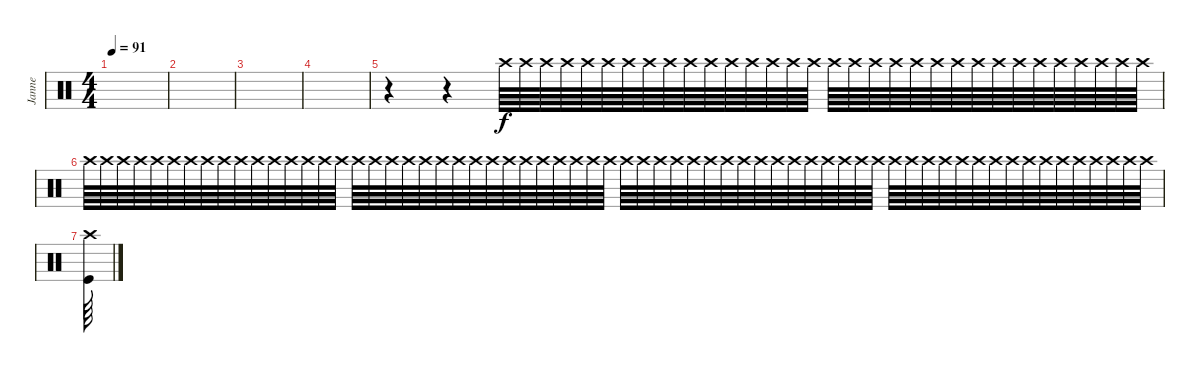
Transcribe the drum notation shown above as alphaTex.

\track ("Janne" "Janne") {instrument percussion}
\staff {score}
\articulation defaults
\ts (4 4)
\tempo 91
\clef neutral
\ks c
|
|
|
|
r.4 r.4 "Crash high (hit)".64{volume 16} "Crash high (hit)".64 "Crash high (hit)".64 "Crash high (hit)".64 "Crash high (hit)".64 "Crash high (hit)".64 "Crash high (hit)".64 "Crash high (hit)".64 "Crash high (hit)".64 "Crash high (hit)".64 "Crash high (hit)".64 "Crash high (hit)".64 "Crash high (hit)".64 "Crash high (hit)".64 "Crash high (hit)".64 "Crash high (hit)".64 "Crash high (hit)".64 "Crash high (hit)".64 "Crash high (hit)".64 "Crash high (hit)".64 "Crash high (hit)".64 "Crash high (hit)".64 "Crash high (hit)".64 "Crash high (hit)".64 "Crash high (hit)".64 "Crash high (hit)".64 "Crash high (hit)".64 "Crash high (hit)".64 "Crash high (hit)".64 "Crash high (hit)".64 "Crash high (hit)".64 "Crash high (hit)".64 |
"Crash high (hit)".64 "Crash high (hit)".64 "Crash high (hit)".64 "Crash high (hit)".64 "Crash high (hit)".64 "Crash high (hit)".64 "Crash high (hit)".64 "Crash high (hit)".64 "Crash high (hit)".64 "Crash high (hit)".64 "Crash high (hit)".64 "Crash high (hit)".64 "Crash high (hit)".64 "Crash high (hit)".64 "Crash high (hit)".64 "Crash high (hit)".64 "Crash high (hit)".64 "Crash high (hit)".64 "Crash high (hit)".64 "Crash high (hit)".64 "Crash high (hit)".64 "Crash high (hit)".64 "Crash high (hit)".64 "Crash high (hit)".64 "Crash high (hit)".64 "Crash high (hit)".64 "Crash high (hit)".64 "Crash high (hit)".64 "Crash high (hit)".64 "Crash high (hit)".64 "Crash high (hit)".64 "Crash high (hit)".64 "Crash high (hit)".64 "Crash high (hit)".64 "Crash high (hit)".64 "Crash high (hit)".64 "Crash high (hit)".64 "Crash high (hit)".64 "Crash high (hit)".64 "Crash high (hit)".64 "Crash high (hit)".64 "Crash high (hit)".64 "Crash high (hit)".64 "Crash high (hit)".64 "Crash high (hit)".64 "Crash high (hit)".64 "Crash high (hit)".64 "Crash high (hit)".64 "Crash high (hit)".64 "Crash high (hit)".64 "Crash high (hit)".64 "Crash high (hit)".64 "Crash high (hit)".64 "Crash high (hit)".64 "Crash high (hit)".64 "Crash high (hit)".64 "Crash high (hit)".64 "Crash high (hit)".64 "Crash high (hit)".64 "Crash high (hit)".64 "Crash high (hit)".64 "Crash high (hit)".64 "Crash high (hit)".64 "Crash high (hit)".64 |
("Crash high (hit)" "Kick (hit)").64
